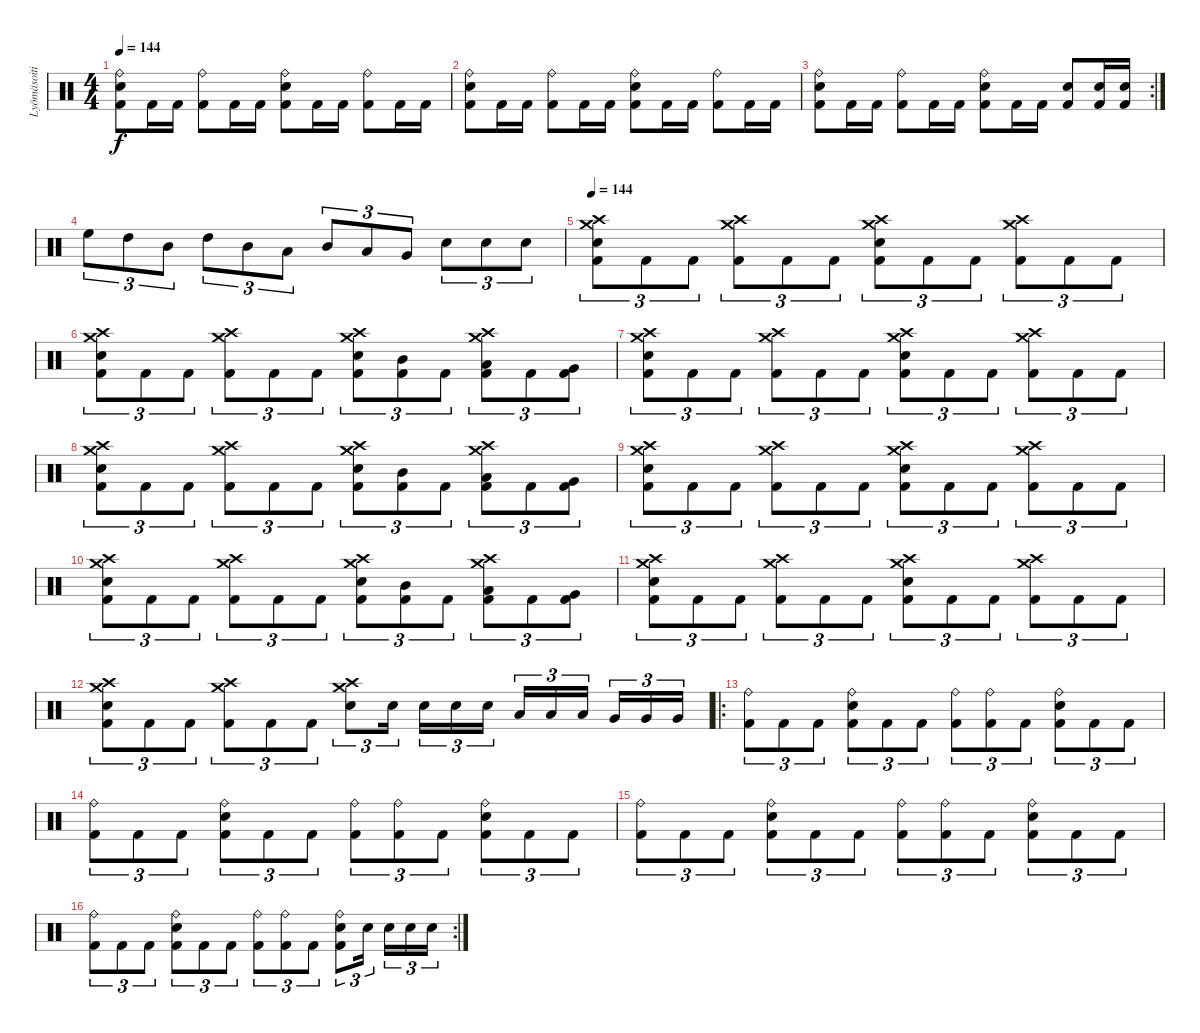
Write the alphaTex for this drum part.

\track ("Lyömäsoitin" "Lyömäsoiti") {instrument percussion}
\staff {score}
\articulation defaults
\ts (4 4)
\tempo 144
\clef neutral
\ks c
("Ride (bell)" "Snare (hit) 2" "Kick (hit) 2").8{dy f} "Kick (hit) 2".16 "Kick (hit) 2".16 ("Ride (bell)" "Kick (hit) 2").8 "Kick (hit) 2".16 "Kick (hit) 2".16 ("Ride (bell)" "Snare (hit) 2" "Kick (hit) 2").8 "Kick (hit) 2".16 "Kick (hit) 2".16 ("Ride (bell)" "Kick (hit) 2").8 "Kick (hit) 2".16 "Kick (hit) 2".16 |
("Ride (bell)" "Snare (hit) 2" "Kick (hit) 2").8 "Kick (hit) 2".16 "Kick (hit) 2".16 ("Ride (bell)" "Kick (hit) 2").8 "Kick (hit) 2".16 "Kick (hit) 2".16 ("Ride (bell)" "Snare (hit) 2" "Kick (hit) 2").8 "Kick (hit) 2".16 "Kick (hit) 2".16 ("Ride (bell)" "Kick (hit) 2").8 "Kick (hit) 2".16 "Kick (hit) 2".16 |
\rc 2
("Ride (bell)" "Snare (hit) 2" "Kick (hit) 2").8 "Kick (hit) 2".16 "Kick (hit) 2".16 ("Ride (bell)" "Kick (hit) 2").8 "Kick (hit) 2".16 "Kick (hit) 2".16 ("Ride (bell)" "Snare (hit) 2" "Kick (hit) 2").8 "Kick (hit) 2".16 "Kick (hit) 2".16 ("Snare (hit) 2" "Kick (hit) 2").8 ("Snare (hit) 2" "Kick (hit) 2").16 ("Snare (hit) 2" "Kick (hit) 2").16 |
"High Floor Tom (hit)".8{tu (3 2)} "High Tom (hit)".8{tu (3 2)} "Mid Tom (hit)".8{tu (3 2)} "High Tom (hit)".8{tu (3 2)} "Mid Tom (hit)".8{tu (3 2)} "Low Tom (hit)".8{tu (3 2)} "Mid Tom (hit)".8{tu (3 2)} "Low Tom (hit)".8{tu (3 2)} "Very Low Tom (hit)".8{tu (3 2)} "Snare (hit) 2".8{tu (3 2)} "Snare (hit) 2".8{tu (3 2)} "Snare (hit) 2".8{tu (3 2)} |
\tempo 144
("Crash medium (hit)" "Crash high (hit)" "Snare (hit) 2" "Kick (hit) 2").8{tu (3 2)} "Kick (hit) 2".8{tu (3 2)} "Kick (hit) 2".8{tu (3 2)} ("Crash medium (hit)" "Crash high (hit)" "Kick (hit) 2").8{tu (3 2)} "Kick (hit) 2".8{tu (3 2)} "Kick (hit) 2".8{tu (3 2)} ("Crash medium (hit)" "Crash high (hit)" "Snare (hit) 2" "Kick (hit) 2").8{tu (3 2)} "Kick (hit) 2".8{tu (3 2)} "Kick (hit) 2".8{tu (3 2)} ("Crash medium (hit)" "Crash high (hit)" "Kick (hit) 2").8{tu (3 2)} "Kick (hit) 2".8{tu (3 2)} "Kick (hit) 2".8{tu (3 2)} |
("Crash medium (hit)" "Crash high (hit)" "Snare (hit) 2" "Kick (hit) 2").8{tu (3 2)} "Kick (hit) 2".8{tu (3 2)} "Kick (hit) 2".8{tu (3 2)} ("Crash medium (hit)" "Crash high (hit)" "Kick (hit) 2").8{tu (3 2)} "Kick (hit) 2".8{tu (3 2)} "Kick (hit) 2".8{tu (3 2)} ("Crash medium (hit)" "Crash high (hit)" "Snare (hit) 2" "Kick (hit) 2").8{tu (3 2)} ("Mid Tom (hit)" "Kick (hit) 2").8{tu (3 2)} "Kick (hit) 2".8{tu (3 2)} ("Crash medium (hit)" "Crash high (hit)" "Low Tom (hit)" "Kick (hit) 2").8{tu (3 2)} "Kick (hit) 2".8{tu (3 2)} ("Very Low Tom (hit)" "Kick (hit) 2").8{tu (3 2)} |
("Crash medium (hit)" "Crash high (hit)" "Snare (hit) 2" "Kick (hit) 2").8{tu (3 2)} "Kick (hit) 2".8{tu (3 2)} "Kick (hit) 2".8{tu (3 2)} ("Crash medium (hit)" "Crash high (hit)" "Kick (hit) 2").8{tu (3 2)} "Kick (hit) 2".8{tu (3 2)} "Kick (hit) 2".8{tu (3 2)} ("Crash medium (hit)" "Crash high (hit)" "Snare (hit) 2" "Kick (hit) 2").8{tu (3 2)} "Kick (hit) 2".8{tu (3 2)} "Kick (hit) 2".8{tu (3 2)} ("Crash medium (hit)" "Crash high (hit)" "Kick (hit) 2").8{tu (3 2)} "Kick (hit) 2".8{tu (3 2)} "Kick (hit) 2".8{tu (3 2)} |
("Crash medium (hit)" "Crash high (hit)" "Snare (hit) 2" "Kick (hit) 2").8{tu (3 2)} "Kick (hit) 2".8{tu (3 2)} "Kick (hit) 2".8{tu (3 2)} ("Crash medium (hit)" "Crash high (hit)" "Kick (hit) 2").8{tu (3 2)} "Kick (hit) 2".8{tu (3 2)} "Kick (hit) 2".8{tu (3 2)} ("Crash medium (hit)" "Crash high (hit)" "Snare (hit) 2" "Kick (hit) 2").8{tu (3 2)} ("Mid Tom (hit)" "Kick (hit) 2").8{tu (3 2)} "Kick (hit) 2".8{tu (3 2)} ("Crash medium (hit)" "Crash high (hit)" "Low Tom (hit)" "Kick (hit) 2").8{tu (3 2)} "Kick (hit) 2".8{tu (3 2)} ("Very Low Tom (hit)" "Kick (hit) 2").8{tu (3 2)} |
("Crash medium (hit)" "Crash high (hit)" "Snare (hit) 2" "Kick (hit) 2").8{tu (3 2)} "Kick (hit) 2".8{tu (3 2)} "Kick (hit) 2".8{tu (3 2)} ("Crash medium (hit)" "Crash high (hit)" "Kick (hit) 2").8{tu (3 2)} "Kick (hit) 2".8{tu (3 2)} "Kick (hit) 2".8{tu (3 2)} ("Crash medium (hit)" "Crash high (hit)" "Snare (hit) 2" "Kick (hit) 2").8{tu (3 2)} "Kick (hit) 2".8{tu (3 2)} "Kick (hit) 2".8{tu (3 2)} ("Crash medium (hit)" "Crash high (hit)" "Kick (hit) 2").8{tu (3 2)} "Kick (hit) 2".8{tu (3 2)} "Kick (hit) 2".8{tu (3 2)} |
("Crash medium (hit)" "Crash high (hit)" "Snare (hit) 2" "Kick (hit) 2").8{tu (3 2)} "Kick (hit) 2".8{tu (3 2)} "Kick (hit) 2".8{tu (3 2)} ("Crash medium (hit)" "Crash high (hit)" "Kick (hit) 2").8{tu (3 2)} "Kick (hit) 2".8{tu (3 2)} "Kick (hit) 2".8{tu (3 2)} ("Crash medium (hit)" "Crash high (hit)" "Snare (hit) 2" "Kick (hit) 2").8{tu (3 2)} ("Mid Tom (hit)" "Kick (hit) 2").8{tu (3 2)} "Kick (hit) 2".8{tu (3 2)} ("Crash medium (hit)" "Crash high (hit)" "Low Tom (hit)" "Kick (hit) 2").8{tu (3 2)} "Kick (hit) 2".8{tu (3 2)} ("Very Low Tom (hit)" "Kick (hit) 2").8{tu (3 2)} |
("Crash medium (hit)" "Crash high (hit)" "Snare (hit) 2" "Kick (hit) 2").8{tu (3 2)} "Kick (hit) 2".8{tu (3 2)} "Kick (hit) 2".8{tu (3 2)} ("Crash medium (hit)" "Crash high (hit)" "Kick (hit) 2").8{tu (3 2)} "Kick (hit) 2".8{tu (3 2)} "Kick (hit) 2".8{tu (3 2)} ("Crash medium (hit)" "Crash high (hit)" "Snare (hit) 2" "Kick (hit) 2").8{tu (3 2)} "Kick (hit) 2".8{tu (3 2)} "Kick (hit) 2".8{tu (3 2)} ("Crash medium (hit)" "Crash high (hit)" "Kick (hit) 2").8{tu (3 2)} "Kick (hit) 2".8{tu (3 2)} "Kick (hit) 2".8{tu (3 2)} |
("Crash medium (hit)" "Crash high (hit)" "Snare (hit) 2" "Kick (hit) 2").8{tu (3 2)} "Kick (hit) 2".8{tu (3 2)} "Kick (hit) 2".8{tu (3 2)} ("Crash medium (hit)" "Crash high (hit)" "Kick (hit) 2").8{tu (3 2)} "Kick (hit) 2".8{tu (3 2)} "Kick (hit) 2".8{tu (3 2)} ("Crash medium (hit)" "Crash high (hit)" "Snare (hit) 2").8{tu (3 2)} "Snare (hit) 2".16{tu (3 2)} "Snare (hit) 2".16{tu (3 2)} "Snare (hit) 2".16{tu (3 2)} "Snare (hit) 2".16{tu (3 2)} "Low Tom (hit)".16{tu (3 2)} "Low Tom (hit)".16{tu (3 2)} "Low Tom (hit)".16{tu (3 2)} "Very Low Tom (hit)".16{tu (3 2)} "Very Low Tom (hit)".16{tu (3 2)} "Very Low Tom (hit)".16{tu (3 2)} |
\ro
("Ride (bell)" "Kick (hit) 2").8{tu (3 2)} "Kick (hit) 2".8{tu (3 2)} "Kick (hit) 2".8{tu (3 2)} ("Ride (bell)" "Snare (hit) 2" "Kick (hit) 2").8{tu (3 2)} "Kick (hit) 2".8{tu (3 2)} "Kick (hit) 2".8{tu (3 2)} ("Ride (bell)" "Kick (hit) 2").8{tu (3 2)} ("Ride (bell)" "Kick (hit) 2").8{tu (3 2)} "Kick (hit) 2".8{tu (3 2)} ("Ride (bell)" "Snare (hit) 2" "Kick (hit) 2").8{tu (3 2)} "Kick (hit) 2".8{tu (3 2)} "Kick (hit) 2".8{tu (3 2)} |
("Ride (bell)" "Kick (hit) 2").8{tu (3 2)} "Kick (hit) 2".8{tu (3 2)} "Kick (hit) 2".8{tu (3 2)} ("Ride (bell)" "Snare (hit) 2" "Kick (hit) 2").8{tu (3 2)} "Kick (hit) 2".8{tu (3 2)} "Kick (hit) 2".8{tu (3 2)} ("Ride (bell)" "Kick (hit) 2").8{tu (3 2)} ("Ride (bell)" "Kick (hit) 2").8{tu (3 2)} "Kick (hit) 2".8{tu (3 2)} ("Ride (bell)" "Snare (hit) 2" "Kick (hit) 2").8{tu (3 2)} "Kick (hit) 2".8{tu (3 2)} "Kick (hit) 2".8{tu (3 2)} |
("Ride (bell)" "Kick (hit) 2").8{tu (3 2)} "Kick (hit) 2".8{tu (3 2)} "Kick (hit) 2".8{tu (3 2)} ("Ride (bell)" "Snare (hit) 2" "Kick (hit) 2").8{tu (3 2)} "Kick (hit) 2".8{tu (3 2)} "Kick (hit) 2".8{tu (3 2)} ("Ride (bell)" "Kick (hit) 2").8{tu (3 2)} ("Ride (bell)" "Kick (hit) 2").8{tu (3 2)} "Kick (hit) 2".8{tu (3 2)} ("Ride (bell)" "Snare (hit) 2" "Kick (hit) 2").8{tu (3 2)} "Kick (hit) 2".8{tu (3 2)} "Kick (hit) 2".8{tu (3 2)} |
\rc 2
("Ride (bell)" "Kick (hit) 2").8{tu (3 2)} "Kick (hit) 2".8{tu (3 2)} "Kick (hit) 2".8{tu (3 2)} ("Ride (bell)" "Snare (hit) 2" "Kick (hit) 2").8{tu (3 2)} "Kick (hit) 2".8{tu (3 2)} "Kick (hit) 2".8{tu (3 2)} ("Ride (bell)" "Kick (hit) 2").8{tu (3 2)} ("Ride (bell)" "Kick (hit) 2").8{tu (3 2)} "Kick (hit) 2".8{tu (3 2)} ("Ride (bell)" "Snare (hit) 2" "Kick (hit) 2").8{tu (3 2)} "Snare (hit) 2".16{tu (3 2)} "Snare (hit) 2".16{tu (3 2)} "Snare (hit) 2".16{tu (3 2)} "Snare (hit) 2".16{tu (3 2)}
